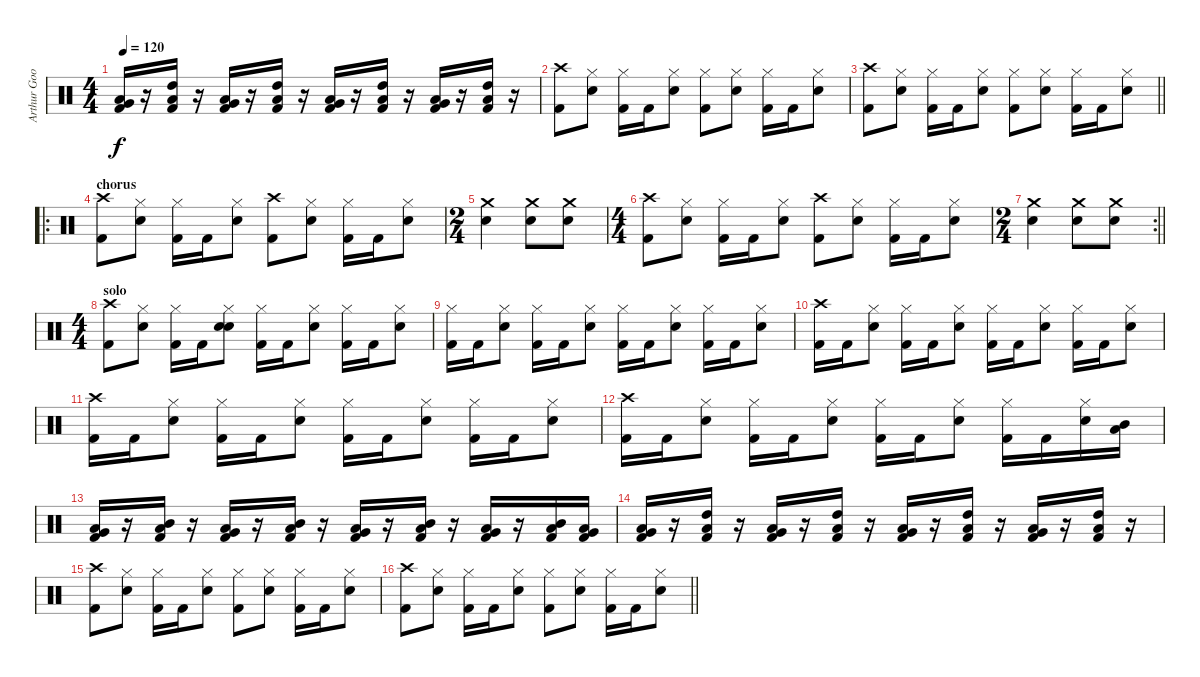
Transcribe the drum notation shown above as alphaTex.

\track ("Arthur Googy" "Arthur Goo") {instrument percussion}
\staff {score}
\articulation defaults
\ts (4 4)
\tempo 120
\clef neutral
\ks c
("Low Tom (hit)" "Very Low Tom (hit)" "Kick (hit) 2").16{dy f} r.16 ("High Tom (hit)" "Low Tom (hit)" "Kick (hit) 2").16 r.16 ("Low Tom (hit)" "Very Low Tom (hit)" "Kick (hit) 2").16 r.16 ("High Tom (hit)" "Low Tom (hit)" "Kick (hit) 2").16 r.16 ("Low Tom (hit)" "Very Low Tom (hit)" "Kick (hit) 2").16 r.16 ("High Tom (hit)" "Low Tom (hit)" "Kick (hit) 2").16 r.16 ("Low Tom (hit)" "Very Low Tom (hit)" "Kick (hit) 2").16 r.16 ("High Tom (hit)" "Low Tom (hit)" "Kick (hit) 2").16 r.16 |
("Crash high (hit)" "Kick (hit) 2").8 ("Hi-Hat (closed)" "Snare (hit) 2").8 ("Hi-Hat (closed)" "Kick (hit) 2").16 "Kick (hit) 2".16 ("Hi-Hat (closed)" "Snare (hit) 2").8 ("Hi-Hat (closed)" "Kick (hit) 2").8 ("Hi-Hat (closed)" "Snare (hit) 2").8 ("Hi-Hat (closed)" "Kick (hit) 2").16 "Kick (hit) 2".16 ("Hi-Hat (closed)" "Snare (hit) 2").8 |
\barLineRight lightlight
("Crash high (hit)" "Kick (hit) 2").8 ("Hi-Hat (closed)" "Snare (hit) 2").8 ("Hi-Hat (closed)" "Kick (hit) 2").16 "Kick (hit) 2".16 ("Hi-Hat (closed)" "Snare (hit) 2").8 ("Hi-Hat (closed)" "Kick (hit) 2").8 ("Hi-Hat (closed)" "Snare (hit) 2").8 ("Hi-Hat (closed)" "Kick (hit) 2").16 "Kick (hit) 2".16 ("Hi-Hat (closed)" "Snare (hit) 2").8 |
\ro
\section ("" "chorus")
("Crash high (hit)" "Kick (hit) 2").8 ("Hi-Hat (closed)" "Snare (hit) 2").8 ("Hi-Hat (closed)" "Kick (hit) 2").16 "Kick (hit) 2".16 ("Hi-Hat (closed)" "Snare (hit) 2").8 ("Crash high (hit)" "Kick (hit) 2").8 ("Hi-Hat (closed)" "Snare (hit) 2").8 ("Hi-Hat (closed)" "Kick (hit) 2").16 "Kick (hit) 2".16 ("Hi-Hat (closed)" "Snare (hit) 2").8 |
\ts (2 4)
("Crash medium (hit)" "Snare (hit) 2").4 ("Crash medium (hit)" "Snare (hit) 2").8 ("Crash medium (hit)" "Snare (hit) 2").8 |
\ts (4 4)
("Crash high (hit)" "Kick (hit) 2").8 ("Hi-Hat (closed)" "Snare (hit) 2").8 ("Hi-Hat (closed)" "Kick (hit) 2").16 "Kick (hit) 2".16 ("Hi-Hat (closed)" "Snare (hit) 2").8 ("Crash high (hit)" "Kick (hit) 2").8 ("Hi-Hat (closed)" "Snare (hit) 2").8 ("Hi-Hat (closed)" "Kick (hit) 2").16 "Kick (hit) 2".16 ("Hi-Hat (closed)" "Snare (hit) 2").8 |
\rc 2
\ts (2 4)
\barLineRight lightlight
("Crash medium (hit)" "Snare (hit) 2").4 ("Crash medium (hit)" "Snare (hit) 2").8 ("Crash medium (hit)" "Snare (hit) 2").8 |
\ts (4 4)
\section ("" "solo")
("Crash high (hit)" "Kick (hit) 2").8 ("Hi-Hat (closed)" "Snare (hit) 2").8 ("Hi-Hat (closed)" "Kick (hit) 2").16 "Kick (hit) 2".16 ("Hi-Hat (closed)" "Snare (hit) 2" "Snare (hit) 2").8 ("Hi-Hat (closed)" "Kick (hit) 2").16 "Kick (hit) 2".16 ("Hi-Hat (closed)" "Snare (hit) 2").8 ("Hi-Hat (closed)" "Kick (hit) 2").16 "Kick (hit) 2".16 ("Hi-Hat (closed)" "Snare (hit) 2").8 |
("Hi-Hat (closed)" "Kick (hit) 2").16 "Kick (hit) 2".16 ("Hi-Hat (closed)" "Snare (hit) 2").8 ("Hi-Hat (closed)" "Kick (hit) 2").16 "Kick (hit) 2".16 ("Hi-Hat (closed)" "Snare (hit) 2").8 ("Hi-Hat (closed)" "Kick (hit) 2").16 "Kick (hit) 2".16 ("Hi-Hat (closed)" "Snare (hit) 2").8 ("Hi-Hat (closed)" "Kick (hit) 2").16 "Kick (hit) 2".16 ("Hi-Hat (closed)" "Snare (hit) 2").8 |
("Crash high (hit)" "Kick (hit) 2").16 "Kick (hit) 2".16 ("Hi-Hat (closed)" "Snare (hit) 2").8 ("Hi-Hat (closed)" "Kick (hit) 2").16 "Kick (hit) 2".16 ("Hi-Hat (closed)" "Snare (hit) 2").8 ("Hi-Hat (closed)" "Kick (hit) 2").16 "Kick (hit) 2".16 ("Hi-Hat (closed)" "Snare (hit) 2").8 ("Hi-Hat (closed)" "Kick (hit) 2").16 "Kick (hit) 2".16 ("Hi-Hat (closed)" "Snare (hit) 2").8 |
("Crash high (hit)" "Kick (hit) 2").16 "Kick (hit) 2".16 ("Hi-Hat (closed)" "Snare (hit) 2").8 ("Hi-Hat (closed)" "Kick (hit) 2").16 "Kick (hit) 2".16 ("Hi-Hat (closed)" "Snare (hit) 2").8 ("Hi-Hat (closed)" "Kick (hit) 2").16 "Kick (hit) 2".16 ("Hi-Hat (closed)" "Snare (hit) 2").8 ("Hi-Hat (closed)" "Kick (hit) 2").16 "Kick (hit) 2".16 ("Hi-Hat (closed)" "Snare (hit) 2").8 |
("Crash high (hit)" "Kick (hit) 2").16 "Kick (hit) 2".16 ("Hi-Hat (closed)" "Snare (hit) 2").8 ("Hi-Hat (closed)" "Kick (hit) 2").16 "Kick (hit) 2".16 ("Hi-Hat (closed)" "Snare (hit) 2").8 ("Hi-Hat (closed)" "Kick (hit) 2").16 "Kick (hit) 2".16 ("Hi-Hat (closed)" "Snare (hit) 2").8 ("Hi-Hat (closed)" "Kick (hit) 2").16 "Kick (hit) 2".16 ("Hi-Hat (closed)" "Snare (hit) 2").16 ("Mid Tom (hit)" "Low Tom (hit)").16 |
("Low Tom (hit)" "Very Low Tom (hit)" "Kick (hit) 2").16 r.16 ("Mid Tom (hit)" "Low Tom (hit)" "Kick (hit) 2").16 r.16 ("Low Tom (hit)" "Very Low Tom (hit)" "Kick (hit) 2").16 r.16 ("Mid Tom (hit)" "Low Tom (hit)" "Kick (hit) 2").16 r.16 ("Low Tom (hit)" "Very Low Tom (hit)" "Kick (hit) 2").16 r.16 ("Mid Tom (hit)" "Low Tom (hit)" "Kick (hit) 2").16 r.16 ("Low Tom (hit)" "Very Low Tom (hit)" "Kick (hit) 2").16 r.16 ("Mid Tom (hit)" "Low Tom (hit)" "Kick (hit) 2").16 ("Low Tom (hit)" "Very Low Tom (hit)" "Kick (hit) 2").16 |
("Low Tom (hit)" "Very Low Tom (hit)" "Kick (hit) 2").16 r.16 ("High Tom (hit)" "Low Tom (hit)" "Kick (hit) 2").16 r.16 ("Low Tom (hit)" "Very Low Tom (hit)" "Kick (hit) 2").16 r.16 ("High Tom (hit)" "Low Tom (hit)" "Kick (hit) 2").16 r.16 ("Low Tom (hit)" "Very Low Tom (hit)" "Kick (hit) 2").16 r.16 ("High Tom (hit)" "Low Tom (hit)" "Kick (hit) 2").16 r.16 ("Low Tom (hit)" "Very Low Tom (hit)" "Kick (hit) 2").16 r.16 ("High Tom (hit)" "Low Tom (hit)" "Kick (hit) 2").16 r.16 |
("Crash high (hit)" "Kick (hit) 2").8 ("Hi-Hat (closed)" "Snare (hit) 2").8 ("Hi-Hat (closed)" "Kick (hit) 2").16 "Kick (hit) 2".16 ("Hi-Hat (closed)" "Snare (hit) 2").8 ("Hi-Hat (closed)" "Kick (hit) 2").8 ("Hi-Hat (closed)" "Snare (hit) 2").8 ("Hi-Hat (closed)" "Kick (hit) 2").16 "Kick (hit) 2".16 ("Hi-Hat (closed)" "Snare (hit) 2").8 |
\barLineRight lightlight
("Crash high (hit)" "Kick (hit) 2").8 ("Hi-Hat (closed)" "Snare (hit) 2").8 ("Hi-Hat (closed)" "Kick (hit) 2").16 "Kick (hit) 2".16 ("Hi-Hat (closed)" "Snare (hit) 2").8 ("Hi-Hat (closed)" "Kick (hit) 2").8 ("Hi-Hat (closed)" "Snare (hit) 2").8 ("Hi-Hat (closed)" "Kick (hit) 2").16 "Kick (hit) 2".16 ("Hi-Hat (closed)" "Snare (hit) 2").8
